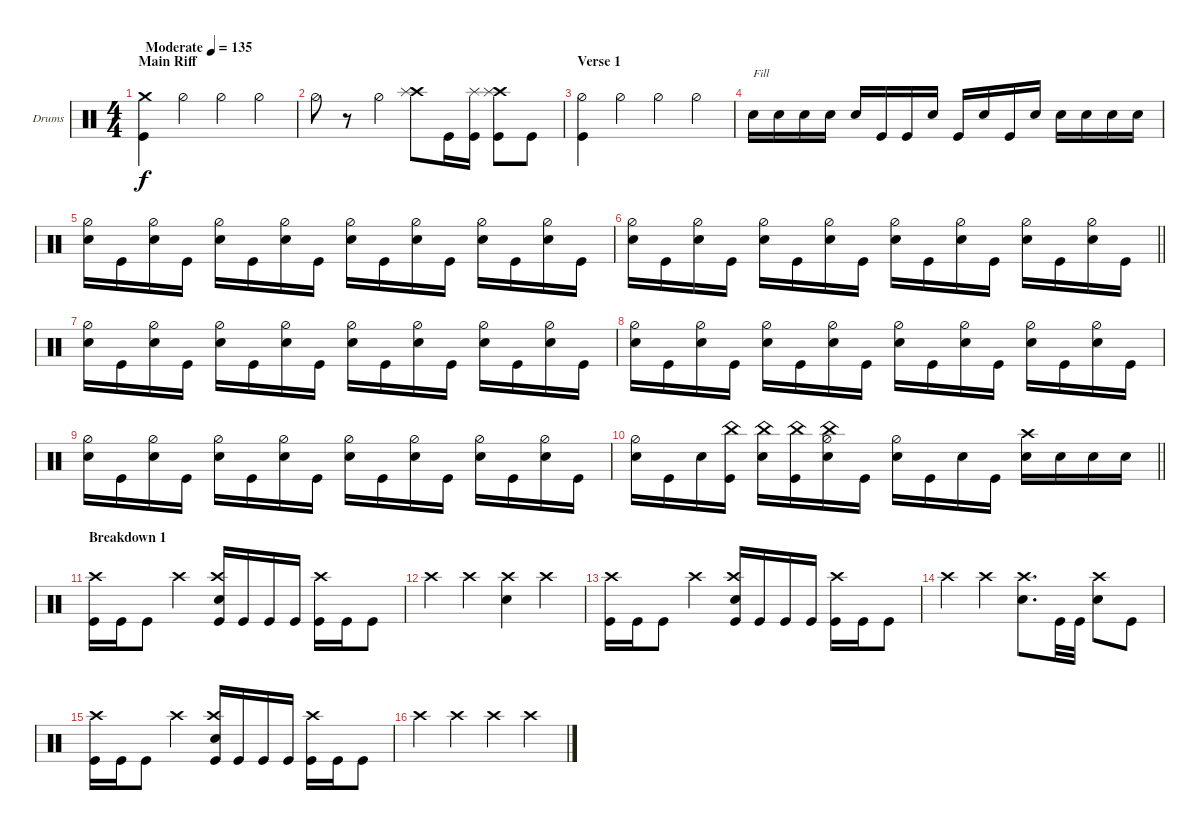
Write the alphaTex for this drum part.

\bracketExtendMode groupsimilarinstruments
\firstSystemTrackNameOrientation horizontal
\otherSystemsTrackNameOrientation horizontal
\track ("Drumkit" "Drums") {instrument percussion}
\staff {score}
\articulation defaults
\ts (4 4)
\beaming (8 2 2 2 2)
\section ("" "Main Riff")
\tempo (135 "Moderate")
\clef neutral
\ks c
("Crash medium (hit)" "Kick (hit)").4{dy f} "Hi-Hat (half)".4 "Hi-Hat (half)".4 "Hi-Hat (half)".4 |
"Hi-Hat (half)".8 r.8 "Hi-Hat (half)".4 ("Crash high (hit)" "Splash (hit)").8 "Kick (hit)".16 ("Kick (hit)" "Splash (hit)").16 ("Crash high (hit)" "Kick (hit)" "Splash (hit)").8 "Kick (hit)".8 |
\section ("" "Verse 1")
("Hi-Hat (half)" "Kick (hit)").4 "Hi-Hat (half)".4 "Hi-Hat (half)".4 "Hi-Hat (half)".4 |
"Snare (hit) 2".16{txt "Fill"} "Snare (hit) 2".16 "Snare (hit) 2".16 "Snare (hit) 2".16 "Snare (hit) 2".16 "Kick (hit)".16 "Kick (hit)".16 "Snare (hit) 2".16 "Kick (hit)".16 "Snare (hit) 2".16 "Kick (hit)".16 "Snare (hit) 2".16 "Snare (hit) 2".16 "Snare (hit) 2".16 "Snare (hit) 2".16 "Snare (hit) 2".16 |
("Snare (hit) 2" "Hi-Hat (half)").16 "Kick (hit)".16 ("Snare (hit) 2" "Hi-Hat (half)").16 "Kick (hit)".16 ("Snare (hit) 2" "Hi-Hat (half)").16 "Kick (hit)".16 ("Snare (hit) 2" "Hi-Hat (half)").16 "Kick (hit)".16 ("Snare (hit) 2" "Hi-Hat (half)").16 "Kick (hit)".16 ("Snare (hit) 2" "Hi-Hat (half)").16 "Kick (hit)".16 ("Snare (hit) 2" "Hi-Hat (half)").16 "Kick (hit)".16 ("Snare (hit) 2" "Hi-Hat (half)").16 "Kick (hit)".16 |
\barLineRight lightlight
("Snare (hit) 2" "Hi-Hat (half)").16 "Kick (hit)".16 ("Snare (hit) 2" "Hi-Hat (half)").16 "Kick (hit)".16 ("Snare (hit) 2" "Hi-Hat (half)").16 "Kick (hit)".16 ("Snare (hit) 2" "Hi-Hat (half)").16 "Kick (hit)".16 ("Snare (hit) 2" "Hi-Hat (half)").16 "Kick (hit)".16 ("Snare (hit) 2" "Hi-Hat (half)").16 "Kick (hit)".16 ("Snare (hit) 2" "Hi-Hat (half)").16 "Kick (hit)".16 ("Snare (hit) 2" "Hi-Hat (half)").16 "Kick (hit)".16 |
("Snare (hit) 2" "Hi-Hat (half)").16 "Kick (hit)".16 ("Snare (hit) 2" "Hi-Hat (half)").16 "Kick (hit)".16 ("Snare (hit) 2" "Hi-Hat (half)").16 "Kick (hit)".16 ("Snare (hit) 2" "Hi-Hat (half)").16 "Kick (hit)".16 ("Snare (hit) 2" "Hi-Hat (half)").16 "Kick (hit)".16 ("Snare (hit) 2" "Hi-Hat (half)").16 "Kick (hit)".16 ("Snare (hit) 2" "Hi-Hat (half)").16 "Kick (hit)".16 ("Snare (hit) 2" "Hi-Hat (half)").16 "Kick (hit)".16 |
("Snare (hit) 2" "Hi-Hat (half)").16 "Kick (hit)".16 ("Snare (hit) 2" "Hi-Hat (half)").16 "Kick (hit)".16 ("Snare (hit) 2" "Hi-Hat (half)").16 "Kick (hit)".16 ("Snare (hit) 2" "Hi-Hat (half)").16 "Kick (hit)".16 ("Snare (hit) 2" "Hi-Hat (half)").16 "Kick (hit)".16 ("Snare (hit) 2" "Hi-Hat (half)").16 "Kick (hit)".16 ("Snare (hit) 2" "Hi-Hat (half)").16 "Kick (hit)".16 ("Snare (hit) 2" "Hi-Hat (half)").16 "Kick (hit)".16 |
("Snare (hit) 2" "Hi-Hat (half)").16 "Kick (hit)".16 ("Snare (hit) 2" "Hi-Hat (half)").16 "Kick (hit)".16 ("Snare (hit) 2" "Hi-Hat (half)").16 "Kick (hit)".16 ("Snare (hit) 2" "Hi-Hat (half)").16 "Kick (hit)".16 ("Snare (hit) 2" "Hi-Hat (half)").16 "Kick (hit)".16 ("Snare (hit) 2" "Hi-Hat (half)").16 "Kick (hit)".16 ("Snare (hit) 2" "Hi-Hat (half)").16 "Kick (hit)".16 ("Snare (hit) 2" "Hi-Hat (half)").16 "Kick (hit)".16 |
\barLineRight lightlight
("Snare (hit) 2" "Hi-Hat (half)").16 "Kick (hit)".16 "Snare (hit) 2".16 ("Kick (hit)" "China (hit)").16 ("Snare (hit) 2" "China (hit)").16 ("Kick (hit)" "China (hit)").16 ("Snare (hit) 2" "Hi-Hat (half)" "China (hit)").16 "Kick (hit)".16 ("Snare (hit) 2" "Hi-Hat (half)").16 "Kick (hit)".16 "Snare (hit) 2".16 "Kick (hit)".16 ("Snare (hit) 2" "Crash high (hit)").16 "Snare (hit) 2".16 "Snare (hit) 2".16 "Snare (hit) 2".16 |
\section ("" "Breakdown 1")
("Kick (hit)" "Crash high (hit)").16 "Kick (hit)".16 "Kick (hit)".8 "Crash high (hit)".4 ("Crash high (hit)" "Kick (hit)" "Snare (hit) 2").16 "Kick (hit)".16 "Kick (hit)".16 "Kick (hit)".16 ("Kick (hit)" "Crash high (hit)").16 "Kick (hit)".16 "Kick (hit)".8 |
"Crash high (hit)".4 "Crash high (hit)".4 ("Crash high (hit)" "Snare (hit) 2").4 "Crash high (hit)".4 |
("Kick (hit)" "Crash high (hit)").16 "Kick (hit)".16 "Kick (hit)".8 "Crash high (hit)".4 ("Crash high (hit)" "Kick (hit)" "Snare (hit) 2").16 "Kick (hit)".16 "Kick (hit)".16 "Kick (hit)".16 ("Kick (hit)" "Crash high (hit)").16 "Kick (hit)".16 "Kick (hit)".8 |
"Crash high (hit)".4 "Crash high (hit)".4 ("Crash high (hit)" "Snare (hit) 2").8{d} "Kick (hit)".32 "Kick (hit)".32 ("Crash high (hit)" "Snare (hit) 2").8 "Kick (hit)".8 |
("Kick (hit)" "Crash high (hit)").16 "Kick (hit)".16 "Kick (hit)".8 "Crash high (hit)".4 ("Crash high (hit)" "Kick (hit)" "Snare (hit) 2").16 "Kick (hit)".16 "Kick (hit)".16 "Kick (hit)".16 ("Kick (hit)" "Crash high (hit)").16 "Kick (hit)".16 "Kick (hit)".8 |
"Crash high (hit)".4 "Crash high (hit)".4 "Crash high (hit)".4 "Crash high (hit)".4
